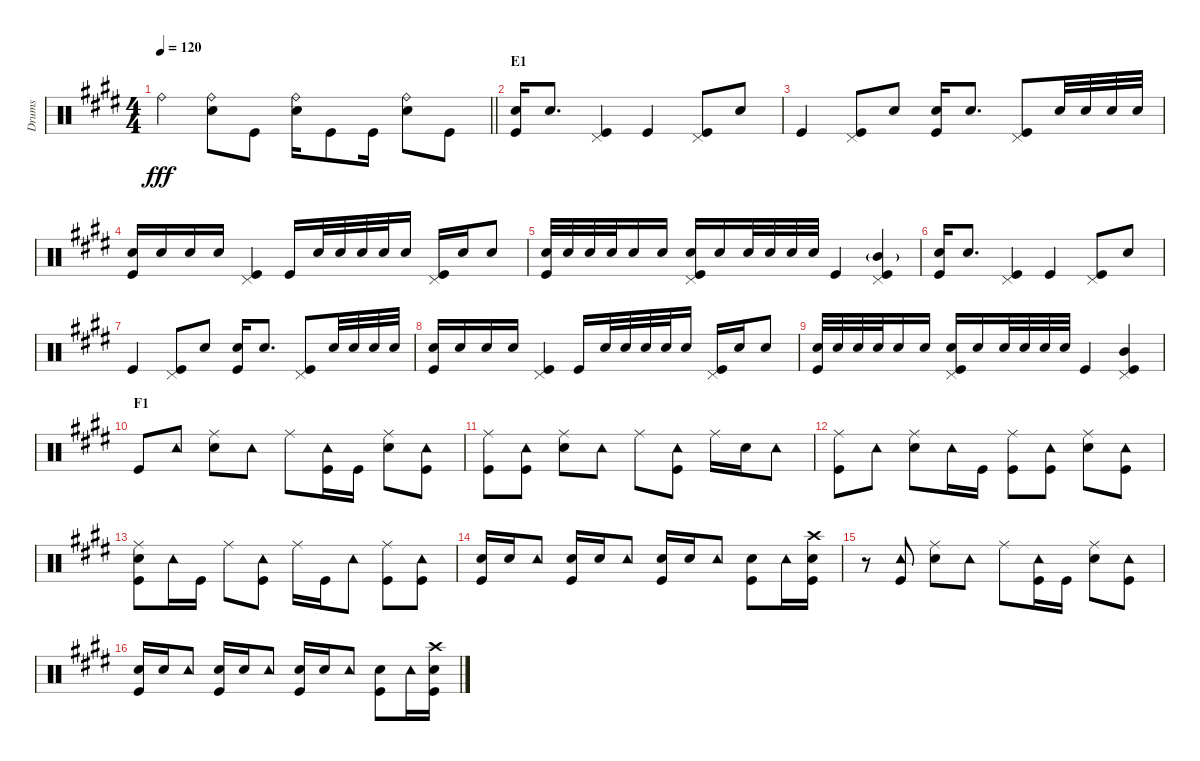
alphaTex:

\track ("Drums" "Drums") {instrument percussion}
\staff {score}
\articulation defaults
\ts (4 4)
\tempo 120
\clef neutral
\barLineRight lightlight
\ks e "Ride (bell)".4{dy fff}
("Ride (bell)" "Snare (hit) 2").8 "Kick (hit)".8 ("Ride (bell)" "Snare (hit) 2").16 "Kick (hit)".8 "Kick (hit)".16 ("Ride (bell)" "Snare (hit) 2").8 "Kick (hit)".8 |
\section ("" "E1")
("Snare (hit) 2" "Kick (hit)").16 "Snare (hit) 2".8{d} ("Pedal Hi-Hat (hit)" "Kick (hit)").4 "Kick (hit)".4 ("Pedal Hi-Hat (hit)" "Kick (hit)").8 "Snare (hit) 2".8 |
"Kick (hit)".4 ("Pedal Hi-Hat (hit)" "Kick (hit)").8 "Snare (hit) 2".8 ("Snare (hit) 2" "Kick (hit)").16 "Snare (hit) 2".8{d} ("Pedal Hi-Hat (hit)" "Kick (hit)").8 "Snare (hit) 2".32 "Snare (hit) 2".32 "Snare (hit) 2".32 "Snare (hit) 2".32 |
("Snare (hit) 2" "Kick (hit)").16 "Snare (hit) 2".16 "Snare (hit) 2".16 "Snare (hit) 2".16 ("Pedal Hi-Hat (hit)" "Kick (hit)").4 "Kick (hit)".16 "Snare (hit) 2".32 "Snare (hit) 2".32 "Snare (hit) 2".32 "Snare (hit) 2".32 "Snare (hit) 2".16 ("Pedal Hi-Hat (hit)" "Kick (hit)").16 "Snare (hit) 2".16 "Snare (hit) 2".8 |
("Snare (hit) 2" "Kick (hit)").32 "Snare (hit) 2".32 "Snare (hit) 2".32 "Snare (hit) 2".32 "Snare (hit) 2".16 "Snare (hit) 2".16 ("Pedal Hi-Hat (hit)" "Snare (hit) 2" "Kick (hit)").16 "Snare (hit) 2".16 "Snare (hit) 2".32 "Snare (hit) 2".32 "Snare (hit) 2".32 "Snare (hit) 2".32 "Kick (hit)".4 ("Pedal Hi-Hat (hit)" "Mid Tom (hit)"{g} "Kick (hit)").4 |
("Snare (hit) 2" "Kick (hit)").16 "Snare (hit) 2".8{d} ("Pedal Hi-Hat (hit)" "Kick (hit)").4 "Kick (hit)".4 ("Pedal Hi-Hat (hit)" "Kick (hit)").8 "Snare (hit) 2".8 |
"Kick (hit)".4 ("Pedal Hi-Hat (hit)" "Kick (hit)").8 "Snare (hit) 2".8 ("Snare (hit) 2" "Kick (hit)").16 "Snare (hit) 2".8{d} ("Pedal Hi-Hat (hit)" "Kick (hit)").8 "Snare (hit) 2".32 "Snare (hit) 2".32 "Snare (hit) 2".32 "Snare (hit) 2".32 |
("Snare (hit) 2" "Kick (hit)").16 "Snare (hit) 2".16 "Snare (hit) 2".16 "Snare (hit) 2".16 ("Pedal Hi-Hat (hit)" "Kick (hit)").4 "Kick (hit)".16 "Snare (hit) 2".32 "Snare (hit) 2".32 "Snare (hit) 2".32 "Snare (hit) 2".32 "Snare (hit) 2".16 ("Pedal Hi-Hat (hit)" "Kick (hit)").16 "Snare (hit) 2".16 "Snare (hit) 2".8 |
("Snare (hit) 2" "Kick (hit)").32 "Snare (hit) 2".32 "Snare (hit) 2".32 "Snare (hit) 2".32 "Snare (hit) 2".16 "Snare (hit) 2".16 ("Pedal Hi-Hat (hit)" "Snare (hit) 2" "Kick (hit)").16 "Snare (hit) 2".16 "Snare (hit) 2".32 "Snare (hit) 2".32 "Snare (hit) 2".32 "Snare (hit) 2".32 "Kick (hit)".4 ("Pedal Hi-Hat (hit)" "Mid Tom (hit)" "Kick (hit)").4 |
\section ("" "F1")
"Kick (hit)".8 "Tambourine (hit)".8 ("Ride (middle)" "Snare (hit) 2").8 "Tambourine (hit)".8 "Ride (middle)".8 ("Tambourine (hit)" "Kick (hit)").16 "Kick (hit)".16 ("Ride (middle)" "Snare (hit) 2").8 ("Tambourine (hit)" "Kick (hit)").8 |
("Ride (middle)" "Kick (hit)").8 ("Tambourine (hit)" "Kick (hit)").8 ("Ride (middle)" "Snare (hit) 2").8 "Tambourine (hit)".8 "Ride (middle)".8 ("Tambourine (hit)" "Kick (hit)").8 "Ride (middle)".16 "Snare (hit) 2".16 "Tambourine (hit)".8 |
("Ride (middle)" "Kick (hit)").8 "Tambourine (hit)".8 ("Ride (middle)" "Snare (hit) 2").8 "Tambourine (hit)".16 "Kick (hit)".16 ("Ride (middle)" "Kick (hit)").8 ("Tambourine (hit)" "Kick (hit)").8 ("Ride (middle)" "Snare (hit) 2").8 ("Tambourine (hit)" "Kick (hit)").8 |
("Ride (middle)" "Snare (hit) 2" "Kick (hit)").8 "Tambourine (hit)".16 "Kick (hit)".16 "Ride (middle)".8 ("Tambourine (hit)" "Kick (hit)").8 "Ride (middle)".16 "Kick (hit)".16 "Tambourine (hit)".8 ("Ride (middle)" "Kick (hit)").8 ("Tambourine (hit)" "Kick (hit)").8 |
("Snare (hit) 2" "Kick (hit)").16 "Snare (hit) 2".16 "Tambourine (hit)".8 ("Snare (hit) 2" "Kick (hit)").16 "Snare (hit) 2".16 "Tambourine (hit)".8 ("Snare (hit) 2" "Kick (hit)").16 "Snare (hit) 2".16 "Tambourine (hit)".8 ("Snare (hit) 2" "Kick (hit)").8 "Tambourine (hit)".16 ("Crash high (hit)" "Snare (hit) 2" "Kick (hit)").16 |
r.8 ("Tambourine (hit)" "Kick (hit)").8 ("Ride (middle)" "Snare (hit) 2").8 "Tambourine (hit)".8 "Ride (middle)".8 ("Tambourine (hit)" "Kick (hit)").16 "Kick (hit)".16 ("Ride (middle)" "Snare (hit) 2").8 ("Tambourine (hit)" "Kick (hit)").8 |
("Snare (hit) 2" "Kick (hit)").16 "Snare (hit) 2".16 "Tambourine (hit)".8 ("Snare (hit) 2" "Kick (hit)").16 "Snare (hit) 2".16 "Tambourine (hit)".8 ("Snare (hit) 2" "Kick (hit)").16 "Snare (hit) 2".16 "Tambourine (hit)".8 ("Snare (hit) 2" "Kick (hit)").8 "Tambourine (hit)".16 ("Crash high (hit)" "Snare (hit) 2" "Kick (hit)").16
